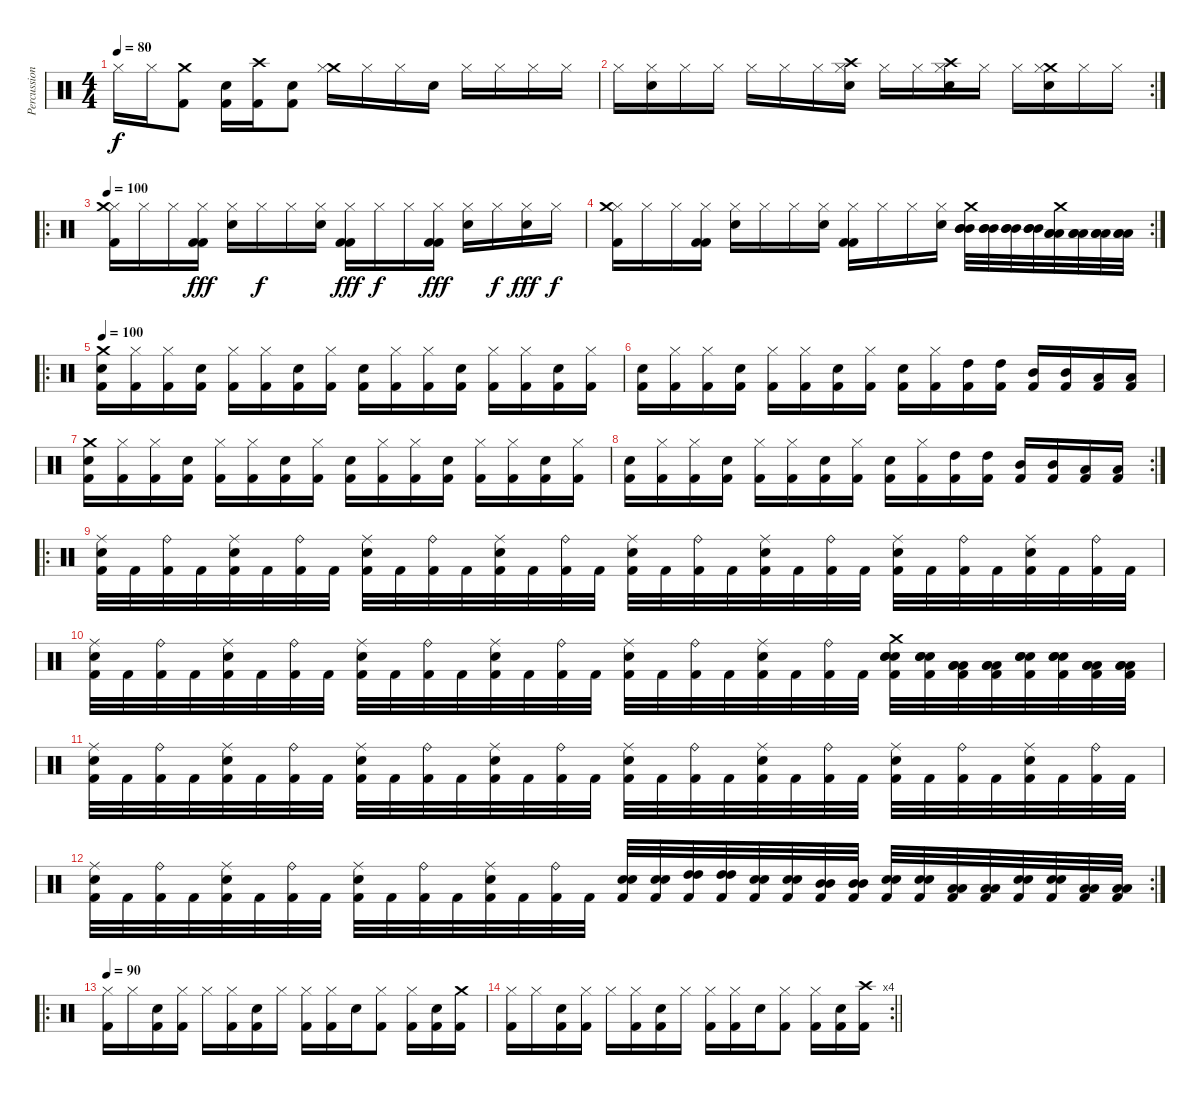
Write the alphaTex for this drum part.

\track ("Percussions" "Percussion") {instrument percussion}
\staff {score}
\articulation defaults
\ts (4 4)
\tempo 80
\clef neutral
\ks c "Hi-Hat (closed)".16{dy f} "Hi-Hat (closed)".16
("Crash medium (hit)" "Kick (hit) 2").8 ("Snare (hit) 2" "Kick (hit) 2").16 ("Crash high (hit)" "Kick (hit) 2").16 ("Snare (hit) 2" "Kick (hit) 2").8 ("Crash medium (hit)" "Hi-Hat (closed)").16 "Hi-Hat (closed)".16 "Hi-Hat (closed)".16 "Snare (hit) 2".16 "Hi-Hat (closed)".16 "Hi-Hat (closed)".16 "Hi-Hat (closed)".16 "Hi-Hat (closed)".16 |
\rc 2 "Hi-Hat (closed)".16
("Snare (hit) 2" "Hi-Hat (closed)").16 "Hi-Hat (closed)".16 "Hi-Hat (closed)".16 "Hi-Hat (closed)".16 "Hi-Hat (closed)".16 "Hi-Hat (closed)".16 ("Crash high (hit)" "Snare (hit) 2" "Hi-Hat (closed)").16 "Hi-Hat (closed)".16 "Hi-Hat (closed)".16 ("Crash high (hit)" "Snare (hit) 2" "Hi-Hat (closed)").16 "Hi-Hat (closed)".16 "Hi-Hat (closed)".16 ("Crash medium (hit)" "Snare (hit) 2" "Hi-Hat (closed)").16 "Hi-Hat (closed)".16 "Hi-Hat (closed)".16 |
\ro
\tempo 100
("Hi-Hat (closed)" "Kick (hit) 2" "Crash medium (hit)").16 "Hi-Hat (closed)".16 "Hi-Hat (closed)".16 ("Hi-Hat (closed)" "Kick (hit) 2" "Kick (hit) 2").16{dy fff} ("Hi-Hat (closed)" "Snare (hit) 2").16 "Hi-Hat (closed)".16{dy f} "Hi-Hat (closed)".16 ("Hi-Hat (closed)" "Snare (hit) 2").16 ("Hi-Hat (closed)" "Kick (hit) 2" "Kick (hit) 2").16{dy fff} "Hi-Hat (closed)".16{dy f} "Hi-Hat (closed)".16 ("Hi-Hat (closed)" "Kick (hit) 2" "Kick (hit) 2").16{dy fff} ("Hi-Hat (closed)" "Snare (hit) 2").16 "Hi-Hat (closed)".16{dy f} ("Hi-Hat (closed)" "Snare (hit) 2").16{dy fff} "Hi-Hat (closed)".16{dy f} |
\rc 2
("Hi-Hat (closed)" "Kick (hit) 2" "Crash medium (hit)").16 "Hi-Hat (closed)".16 "Hi-Hat (closed)".16 ("Hi-Hat (closed)" "Kick (hit) 2" "Kick (hit) 2").16 ("Hi-Hat (closed)" "Snare (hit) 2").16 "Hi-Hat (closed)".16 "Hi-Hat (closed)".16 ("Hi-Hat (closed)" "Snare (hit) 2").16 ("Hi-Hat (closed)" "Kick (hit) 2" "Kick (hit) 2").16 "Hi-Hat (closed)".16 "Hi-Hat (closed)".16 ("Hi-Hat (closed)" "Snare (hit) 2").16 ("Crash medium (hit)" "Mid Tom (hit)" "Mid Tom (hit)" "Mid Tom (hit)").32 ("Mid Tom (hit)" "Mid Tom (hit)" "Mid Tom (hit)").32 ("Mid Tom (hit)" "Mid Tom (hit)" "Mid Tom (hit)").32 ("Mid Tom (hit)" "Mid Tom (hit)" "Mid Tom (hit)").32 ("Crash medium (hit)" "Low Tom (hit)" "Low Tom (hit)" "Low Tom (hit)").32 ("Low Tom (hit)" "Low Tom (hit)" "Low Tom (hit)").32 ("Low Tom (hit)" "Low Tom (hit)" "Low Tom (hit)").32 ("Low Tom (hit)" "Low Tom (hit)" "Low Tom (hit)").32 |
\ro
\tempo 100
("Crash medium (hit)" "Kick (hit) 2" "Snare (hit) 2").16 ("Kick (hit) 2" "Hi-Hat (closed)").16 ("Kick (hit) 2" "Hi-Hat (closed)").16 ("Kick (hit) 2" "Snare (hit) 2").16 ("Kick (hit) 2" "Hi-Hat (closed)").16 ("Kick (hit) 2" "Hi-Hat (closed)").16 ("Kick (hit) 2" "Snare (hit) 2").16 ("Kick (hit) 2" "Hi-Hat (closed)").16 ("Kick (hit) 2" "Snare (hit) 2").16 ("Kick (hit) 2" "Hi-Hat (closed)").16 ("Kick (hit) 2" "Hi-Hat (closed)").16 ("Kick (hit) 2" "Snare (hit) 2").16 ("Kick (hit) 2" "Hi-Hat (closed)").16 ("Kick (hit) 2" "Hi-Hat (closed)").16 ("Kick (hit) 2" "Snare (hit) 2").16 ("Kick (hit) 2" "Hi-Hat (closed)").16 |
("Kick (hit) 2" "Snare (hit) 2").16 ("Kick (hit) 2" "Hi-Hat (closed)").16 ("Kick (hit) 2" "Hi-Hat (closed)").16 ("Kick (hit) 2" "Snare (hit) 2").16 ("Kick (hit) 2" "Hi-Hat (closed)").16 ("Kick (hit) 2" "Hi-Hat (closed)").16 ("Kick (hit) 2" "Snare (hit) 2").16 ("Kick (hit) 2" "Hi-Hat (closed)").16 ("Kick (hit) 2" "Snare (hit) 2").16 ("Kick (hit) 2" "Hi-Hat (closed)").16 ("Kick (hit) 2" "High Tom (hit)").16 ("Kick (hit) 2" "High Tom (hit)").16 ("Kick (hit) 2" "Mid Tom (hit)").16 ("Kick (hit) 2" "Mid Tom (hit)").16 ("Kick (hit) 2" "Low Tom (hit)").16 ("Kick (hit) 2" "Low Tom (hit)").16 |
("Crash medium (hit)" "Kick (hit) 2" "Snare (hit) 2").16 ("Kick (hit) 2" "Hi-Hat (closed)").16 ("Kick (hit) 2" "Hi-Hat (closed)").16 ("Kick (hit) 2" "Snare (hit) 2").16 ("Kick (hit) 2" "Hi-Hat (closed)").16 ("Kick (hit) 2" "Hi-Hat (closed)").16 ("Kick (hit) 2" "Snare (hit) 2").16 ("Kick (hit) 2" "Hi-Hat (closed)").16 ("Kick (hit) 2" "Snare (hit) 2").16 ("Kick (hit) 2" "Hi-Hat (closed)").16 ("Kick (hit) 2" "Hi-Hat (closed)").16 ("Kick (hit) 2" "Snare (hit) 2").16 ("Kick (hit) 2" "Hi-Hat (closed)").16 ("Kick (hit) 2" "Hi-Hat (closed)").16 ("Kick (hit) 2" "Snare (hit) 2").16 ("Kick (hit) 2" "Hi-Hat (closed)").16 |
\rc 2
("Kick (hit) 2" "Snare (hit) 2").16 ("Kick (hit) 2" "Hi-Hat (closed)").16 ("Kick (hit) 2" "Hi-Hat (closed)").16 ("Kick (hit) 2" "Snare (hit) 2").16 ("Kick (hit) 2" "Hi-Hat (closed)").16 ("Kick (hit) 2" "Hi-Hat (closed)").16 ("Kick (hit) 2" "Snare (hit) 2").16 ("Kick (hit) 2" "Hi-Hat (closed)").16 ("Kick (hit) 2" "Snare (hit) 2").16 ("Kick (hit) 2" "Hi-Hat (closed)").16 ("Kick (hit) 2" "High Tom (hit)").16 ("Kick (hit) 2" "High Tom (hit)").16 ("Kick (hit) 2" "Mid Tom (hit)").16 ("Kick (hit) 2" "Mid Tom (hit)").16 ("Kick (hit) 2" "Low Tom (hit)").16 ("Kick (hit) 2" "Low Tom (hit)").16 |
\ro
("Kick (hit) 2" "Snare (hit) 2" "Ride (middle)").32 "Kick (hit) 2".32 ("Kick (hit) 2" "Ride (bell)").32 "Kick (hit) 2".32 ("Kick (hit) 2" "Snare (hit) 2" "Ride (middle)").32 "Kick (hit) 2".32 ("Kick (hit) 2" "Ride (bell)").32 "Kick (hit) 2".32 ("Kick (hit) 2" "Snare (hit) 2" "Ride (middle)").32 "Kick (hit) 2".32 ("Kick (hit) 2" "Ride (bell)").32 "Kick (hit) 2".32 ("Kick (hit) 2" "Snare (hit) 2" "Ride (middle)").32 "Kick (hit) 2".32 ("Kick (hit) 2" "Ride (bell)").32 "Kick (hit) 2".32 ("Kick (hit) 2" "Snare (hit) 2" "Ride (middle)").32 "Kick (hit) 2".32 ("Kick (hit) 2" "Ride (bell)").32 "Kick (hit) 2".32 ("Kick (hit) 2" "Snare (hit) 2" "Ride (middle)").32 "Kick (hit) 2".32 ("Kick (hit) 2" "Ride (bell)").32 "Kick (hit) 2".32 ("Kick (hit) 2" "Snare (hit) 2" "Ride (middle)").32 "Kick (hit) 2".32 ("Kick (hit) 2" "Ride (bell)").32 "Kick (hit) 2".32 ("Kick (hit) 2" "Snare (hit) 2" "Ride (middle)").32 "Kick (hit) 2".32 ("Kick (hit) 2" "Ride (bell)").32 "Kick (hit) 2".32 |
("Kick (hit) 2" "Snare (hit) 2" "Ride (middle)").32 "Kick (hit) 2".32 ("Kick (hit) 2" "Ride (bell)").32 "Kick (hit) 2".32 ("Kick (hit) 2" "Snare (hit) 2" "Ride (middle)").32 "Kick (hit) 2".32 ("Kick (hit) 2" "Ride (bell)").32 "Kick (hit) 2".32 ("Kick (hit) 2" "Snare (hit) 2" "Ride (middle)").32 "Kick (hit) 2".32 ("Kick (hit) 2" "Ride (bell)").32 "Kick (hit) 2".32 ("Kick (hit) 2" "Snare (hit) 2" "Ride (middle)").32 "Kick (hit) 2".32 ("Kick (hit) 2" "Ride (bell)").32 "Kick (hit) 2".32 ("Kick (hit) 2" "Snare (hit) 2" "Ride (middle)").32 "Kick (hit) 2".32 ("Kick (hit) 2" "Ride (bell)").32 "Kick (hit) 2".32 ("Kick (hit) 2" "Snare (hit) 2" "Ride (middle)").32 "Kick (hit) 2".32 ("Kick (hit) 2" "Ride (bell)").32 "Kick (hit) 2".32 ("Crash medium (hit)" "Kick (hit) 2" "Snare (hit) 2" "Snare (hit) 2" "Snare (hit) 2").32 ("Kick (hit) 2" "Snare (hit) 2" "Snare (hit) 2" "Snare (hit) 2").32 ("Kick (hit) 2" "Low Tom (hit)" "Low Tom (hit)" "Low Tom (hit)").32 ("Kick (hit) 2" "Low Tom (hit)" "Low Tom (hit)" "Low Tom (hit)").32 ("Kick (hit) 2" "Snare (hit) 2" "Snare (hit) 2" "Snare (hit) 2").32 ("Kick (hit) 2" "Snare (hit) 2" "Snare (hit) 2" "Snare (hit) 2").32 ("Kick (hit) 2" "Low Floor Tom (hit)" "Low Floor Tom (hit)" "Low Floor Tom (hit)").32 ("Kick (hit) 2" "Low Floor Tom (hit)" "Low Floor Tom (hit)" "Low Floor Tom (hit)").32 |
("Kick (hit) 2" "Snare (hit) 2" "Ride (middle)").32 "Kick (hit) 2".32 ("Kick (hit) 2" "Ride (bell)").32 "Kick (hit) 2".32 ("Kick (hit) 2" "Snare (hit) 2" "Ride (middle)").32 "Kick (hit) 2".32 ("Kick (hit) 2" "Ride (bell)").32 "Kick (hit) 2".32 ("Kick (hit) 2" "Snare (hit) 2" "Ride (middle)").32 "Kick (hit) 2".32 ("Kick (hit) 2" "Ride (bell)").32 "Kick (hit) 2".32 ("Kick (hit) 2" "Snare (hit) 2" "Ride (middle)").32 "Kick (hit) 2".32 ("Kick (hit) 2" "Ride (bell)").32 "Kick (hit) 2".32 ("Kick (hit) 2" "Snare (hit) 2" "Ride (middle)").32 "Kick (hit) 2".32 ("Kick (hit) 2" "Ride (bell)").32 "Kick (hit) 2".32 ("Kick (hit) 2" "Snare (hit) 2" "Ride (middle)").32 "Kick (hit) 2".32 ("Kick (hit) 2" "Ride (bell)").32 "Kick (hit) 2".32 ("Kick (hit) 2" "Snare (hit) 2" "Ride (middle)").32 "Kick (hit) 2".32 ("Kick (hit) 2" "Ride (bell)").32 "Kick (hit) 2".32 ("Kick (hit) 2" "Snare (hit) 2" "Ride (middle)").32 "Kick (hit) 2".32 ("Kick (hit) 2" "Ride (bell)").32 "Kick (hit) 2".32 |
\rc 2
("Kick (hit) 2" "Snare (hit) 2" "Ride (middle)").32 "Kick (hit) 2".32 ("Kick (hit) 2" "Ride (bell)").32 "Kick (hit) 2".32 ("Kick (hit) 2" "Snare (hit) 2" "Ride (middle)").32 "Kick (hit) 2".32 ("Kick (hit) 2" "Ride (bell)").32 "Kick (hit) 2".32 ("Kick (hit) 2" "Snare (hit) 2" "Ride (middle)").32 "Kick (hit) 2".32 ("Kick (hit) 2" "Ride (bell)").32 "Kick (hit) 2".32 ("Kick (hit) 2" "Snare (hit) 2" "Ride (middle)").32 "Kick (hit) 2".32 ("Kick (hit) 2" "Ride (bell)").32 "Kick (hit) 2".32 ("Kick (hit) 2" "Snare (hit) 2" "Snare (hit) 2").32 ("Kick (hit) 2" "Snare (hit) 2" "Snare (hit) 2").32 ("Kick (hit) 2" "High Tom (hit)" "High Tom (hit)").32 ("Kick (hit) 2" "High Tom (hit)" "High Tom (hit)").32 ("Kick (hit) 2" "Snare (hit) 2" "Snare (hit) 2").32 ("Kick (hit) 2" "Snare (hit) 2" "Snare (hit) 2").32 ("Kick (hit) 2" "Mid Tom (hit)" "Mid Tom (hit)").32 ("Kick (hit) 2" "Mid Tom (hit)" "Mid Tom (hit)").32 ("Kick (hit) 2" "Snare (hit) 2" "Snare (hit) 2").32 ("Kick (hit) 2" "Snare (hit) 2" "Snare (hit) 2").32 ("Kick (hit) 2" "Low Tom (hit)" "Low Tom (hit)").32 ("Kick (hit) 2" "Low Tom (hit)" "Low Tom (hit)").32 ("Kick (hit) 2" "Snare (hit) 2" "Snare (hit) 2").32 ("Kick (hit) 2" "Snare (hit) 2" "Snare (hit) 2").32 ("Kick (hit) 2" "Low Floor Tom (hit)" "Low Floor Tom (hit)").32 ("Kick (hit) 2" "Low Floor Tom (hit)" "Low Floor Tom (hit)").32 |
\ro
\tempo 90
("Hi-Hat (closed)" "Kick (hit) 2").16 "Hi-Hat (closed)".16 ("Snare (hit) 2" "Kick (hit) 2").16 ("Hi-Hat (closed)" "Kick (hit) 2").16 "Hi-Hat (closed)".16 ("Hi-Hat (closed)" "Kick (hit) 2").16 ("Snare (hit) 2" "Kick (hit) 2").16 "Hi-Hat (closed)".16 ("Hi-Hat (closed)" "Kick (hit) 2").16 ("Hi-Hat (closed)" "Kick (hit) 2").16 "Snare (hit) 2".16 ("Hi-Hat (closed)" "Kick (hit) 2").8 ("Hi-Hat (closed)" "Kick (hit) 2").16 ("Snare (hit) 2" "Kick (hit) 2").16 ("Crash medium (hit)" "Kick (hit) 2").16 |
\rc 4
\barLineRight lightlight
("Hi-Hat (closed)" "Kick (hit) 2").16 "Hi-Hat (closed)".16 ("Snare (hit) 2" "Kick (hit) 2").16 ("Hi-Hat (closed)" "Kick (hit) 2").16 "Hi-Hat (closed)".16 ("Hi-Hat (closed)" "Kick (hit) 2").16 ("Snare (hit) 2" "Kick (hit) 2").16 "Hi-Hat (closed)".16 ("Hi-Hat (closed)" "Kick (hit) 2").16 ("Hi-Hat (closed)" "Kick (hit) 2").16 "Snare (hit) 2".16 ("Hi-Hat (closed)" "Kick (hit) 2").8 ("Hi-Hat (closed)" "Kick (hit) 2").16 ("Snare (hit) 2" "Kick (hit) 2").16 ("Crash high (hit)" "Kick (hit) 2").16
